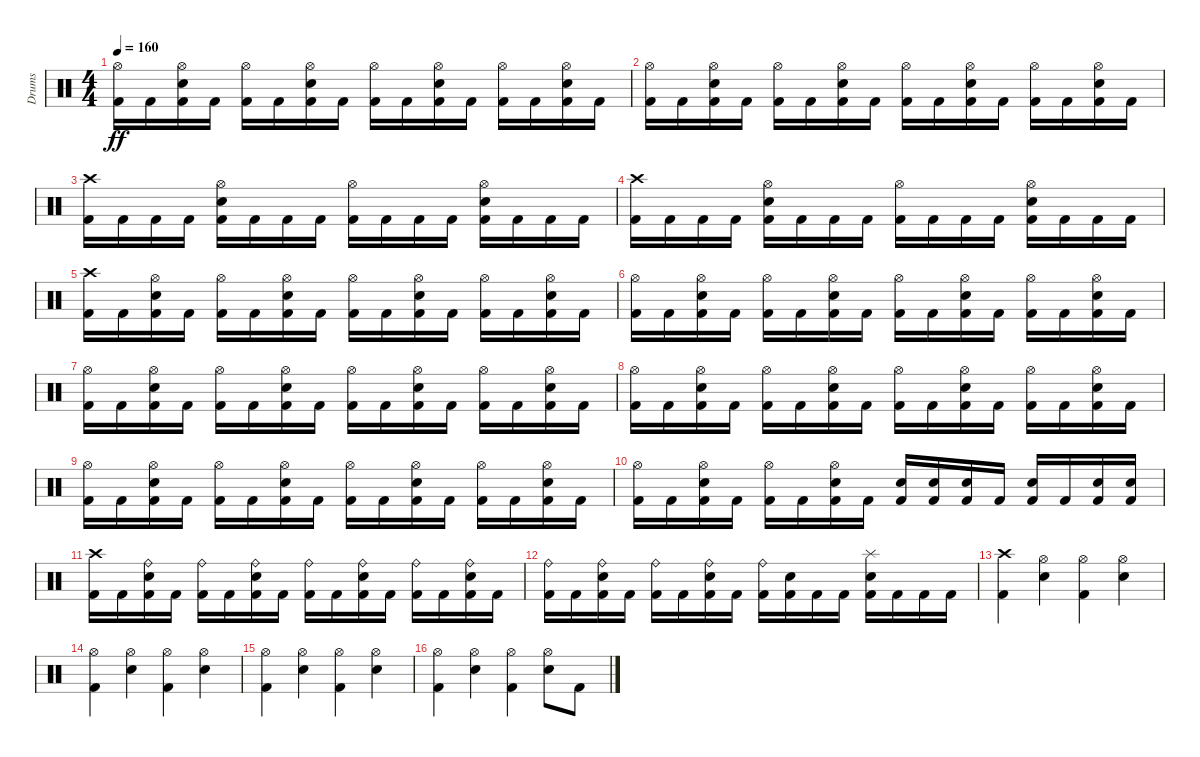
\track ("Drums" "Drums") {instrument percussion}
\staff {score}
\articulation defaults
\ts (4 4)
\tempo 160
\clef neutral
\ks c
("Hi-Hat (open)" "Kick (hit) 2").16{dy ff} "Kick (hit) 2".16 ("Hi-Hat (open)" "Electric Snare (hit)" "Kick (hit) 2").16 "Kick (hit) 2".16 ("Hi-Hat (open)" "Kick (hit) 2").16 "Kick (hit) 2".16 ("Hi-Hat (open)" "Electric Snare (hit)" "Kick (hit) 2").16 "Kick (hit) 2".16 ("Hi-Hat (open)" "Kick (hit) 2").16 "Kick (hit) 2".16 ("Hi-Hat (open)" "Electric Snare (hit)" "Kick (hit) 2").16 "Kick (hit) 2".16 ("Hi-Hat (open)" "Kick (hit) 2").16 "Kick (hit) 2".16 ("Hi-Hat (open)" "Electric Snare (hit)" "Kick (hit) 2").16 "Kick (hit) 2".16 |
("Hi-Hat (open)" "Kick (hit) 2").16 "Kick (hit) 2".16 ("Hi-Hat (open)" "Electric Snare (hit)" "Kick (hit) 2").16 "Kick (hit) 2".16 ("Hi-Hat (open)" "Kick (hit) 2").16 "Kick (hit) 2".16 ("Hi-Hat (open)" "Electric Snare (hit)" "Kick (hit) 2").16 "Kick (hit) 2".16 ("Hi-Hat (open)" "Kick (hit) 2").16 "Kick (hit) 2".16 ("Hi-Hat (open)" "Electric Snare (hit)" "Kick (hit) 2").16 "Kick (hit) 2".16 ("Hi-Hat (open)" "Kick (hit) 2").16 "Kick (hit) 2".16 ("Hi-Hat (open)" "Electric Snare (hit)" "Kick (hit) 2").16 "Kick (hit) 2".16 |
("Crash high (hit)" "Kick (hit) 2").16 "Kick (hit) 2".16 "Kick (hit) 2".16 "Kick (hit) 2".16 ("Hi-Hat (open)" "Electric Snare (hit)" "Kick (hit) 2").16 "Kick (hit) 2".16 "Kick (hit) 2".16 "Kick (hit) 2".16 ("Hi-Hat (open)" "Kick (hit) 2").16 "Kick (hit) 2".16 "Kick (hit) 2".16 "Kick (hit) 2".16 ("Hi-Hat (open)" "Electric Snare (hit)" "Kick (hit) 2").16 "Kick (hit) 2".16 "Kick (hit) 2".16 "Kick (hit) 2".16 |
("Crash high (hit)" "Kick (hit) 2").16 "Kick (hit) 2".16 "Kick (hit) 2".16 "Kick (hit) 2".16 ("Hi-Hat (open)" "Electric Snare (hit)" "Kick (hit) 2").16 "Kick (hit) 2".16 "Kick (hit) 2".16 "Kick (hit) 2".16 ("Hi-Hat (open)" "Kick (hit) 2").16 "Kick (hit) 2".16 "Kick (hit) 2".16 "Kick (hit) 2".16 ("Hi-Hat (open)" "Electric Snare (hit)" "Kick (hit) 2").16 "Kick (hit) 2".16 "Kick (hit) 2".16 "Kick (hit) 2".16 |
("Crash high (hit)" "Kick (hit) 2").16 "Kick (hit) 2".16 ("Hi-Hat (open)" "Electric Snare (hit)" "Kick (hit) 2").16 "Kick (hit) 2".16 ("Hi-Hat (open)" "Kick (hit) 2").16 "Kick (hit) 2".16 ("Hi-Hat (open)" "Electric Snare (hit)" "Kick (hit) 2").16 "Kick (hit) 2".16 ("Hi-Hat (open)" "Kick (hit) 2").16 "Kick (hit) 2".16 ("Hi-Hat (open)" "Electric Snare (hit)" "Kick (hit) 2").16 "Kick (hit) 2".16 ("Hi-Hat (open)" "Kick (hit) 2").16 "Kick (hit) 2".16 ("Hi-Hat (open)" "Electric Snare (hit)" "Kick (hit) 2").16 "Kick (hit) 2".16 |
("Hi-Hat (open)" "Kick (hit) 2").16 "Kick (hit) 2".16 ("Hi-Hat (open)" "Electric Snare (hit)" "Kick (hit) 2").16 "Kick (hit) 2".16 ("Hi-Hat (open)" "Kick (hit) 2").16 "Kick (hit) 2".16 ("Hi-Hat (open)" "Electric Snare (hit)" "Kick (hit) 2").16 "Kick (hit) 2".16 ("Hi-Hat (open)" "Kick (hit) 2").16 "Kick (hit) 2".16 ("Hi-Hat (open)" "Electric Snare (hit)" "Kick (hit) 2").16 "Kick (hit) 2".16 ("Hi-Hat (open)" "Kick (hit) 2").16 "Kick (hit) 2".16 ("Hi-Hat (open)" "Electric Snare (hit)" "Kick (hit) 2").16 "Kick (hit) 2".16 |
("Hi-Hat (open)" "Kick (hit) 2").16 "Kick (hit) 2".16 ("Hi-Hat (open)" "Electric Snare (hit)" "Kick (hit) 2").16 "Kick (hit) 2".16 ("Hi-Hat (open)" "Kick (hit) 2").16 "Kick (hit) 2".16 ("Hi-Hat (open)" "Electric Snare (hit)" "Kick (hit) 2").16 "Kick (hit) 2".16 ("Hi-Hat (open)" "Kick (hit) 2").16 "Kick (hit) 2".16 ("Hi-Hat (open)" "Electric Snare (hit)" "Kick (hit) 2").16 "Kick (hit) 2".16 ("Hi-Hat (open)" "Kick (hit) 2").16 "Kick (hit) 2".16 ("Hi-Hat (open)" "Electric Snare (hit)" "Kick (hit) 2").16 "Kick (hit) 2".16 |
("Hi-Hat (open)" "Kick (hit) 2").16 "Kick (hit) 2".16 ("Hi-Hat (open)" "Electric Snare (hit)" "Kick (hit) 2").16 "Kick (hit) 2".16 ("Hi-Hat (open)" "Kick (hit) 2").16 "Kick (hit) 2".16 ("Hi-Hat (open)" "Electric Snare (hit)" "Kick (hit) 2").16 "Kick (hit) 2".16 ("Hi-Hat (open)" "Kick (hit) 2").16 "Kick (hit) 2".16 ("Hi-Hat (open)" "Electric Snare (hit)" "Kick (hit) 2").16 "Kick (hit) 2".16 ("Hi-Hat (open)" "Kick (hit) 2").16 "Kick (hit) 2".16 ("Hi-Hat (open)" "Electric Snare (hit)" "Kick (hit) 2").16 "Kick (hit) 2".16 |
("Hi-Hat (open)" "Kick (hit) 2").16 "Kick (hit) 2".16 ("Hi-Hat (open)" "Electric Snare (hit)" "Kick (hit) 2").16 "Kick (hit) 2".16 ("Hi-Hat (open)" "Kick (hit) 2").16 "Kick (hit) 2".16 ("Hi-Hat (open)" "Electric Snare (hit)" "Kick (hit) 2").16 "Kick (hit) 2".16 ("Hi-Hat (open)" "Kick (hit) 2").16 "Kick (hit) 2".16 ("Hi-Hat (open)" "Electric Snare (hit)" "Kick (hit) 2").16 "Kick (hit) 2".16 ("Hi-Hat (open)" "Kick (hit) 2").16 "Kick (hit) 2".16 ("Hi-Hat (open)" "Electric Snare (hit)" "Kick (hit) 2").16 "Kick (hit) 2".16 |
("Hi-Hat (open)" "Kick (hit) 2").16 "Kick (hit) 2".16 ("Hi-Hat (open)" "Electric Snare (hit)" "Kick (hit) 2").16 "Kick (hit) 2".16 ("Hi-Hat (open)" "Kick (hit) 2").16 "Kick (hit) 2".16 ("Hi-Hat (open)" "Electric Snare (hit)" "Kick (hit) 2").16 "Kick (hit) 2".16 ("Electric Snare (hit)" "Kick (hit) 2").16 ("Electric Snare (hit)" "Kick (hit) 2").16 ("Electric Snare (hit)" "Kick (hit) 2").16 "Kick (hit) 2".16 ("Electric Snare (hit)" "Kick (hit) 2").16 "Kick (hit) 2".16 ("Electric Snare (hit)" "Kick (hit) 2").16 ("Electric Snare (hit)" "Kick (hit) 2").16 |
("Crash high (hit)" "Kick (hit) 2").16 "Kick (hit) 2".16 ("Ride (bell)" "Electric Snare (hit)" "Kick (hit) 2").16 "Kick (hit) 2".16 ("Ride (bell)" "Kick (hit) 2").16 "Kick (hit) 2".16 ("Ride (bell)" "Electric Snare (hit)" "Kick (hit) 2").16 "Kick (hit) 2".16 ("Ride (bell)" "Kick (hit) 2").16 "Kick (hit) 2".16 ("Ride (bell)" "Electric Snare (hit)" "Kick (hit) 2").16 "Kick (hit) 2".16 ("Ride (bell)" "Kick (hit) 2").16 "Kick (hit) 2".16 ("Ride (bell)" "Electric Snare (hit)" "Kick (hit) 2").16 "Kick (hit) 2".16 |
("Ride (bell)" "Kick (hit) 2").16 "Kick (hit) 2".16 ("Ride (bell)" "Electric Snare (hit)" "Kick (hit) 2").16 "Kick (hit) 2".16 ("Ride (bell)" "Kick (hit) 2").16 "Kick (hit) 2".16 ("Ride (bell)" "Electric Snare (hit)" "Kick (hit) 2").16 "Kick (hit) 2".16 ("Ride (bell)" "Kick (hit) 2").16 ("Electric Snare (hit)" "Kick (hit) 2").16 "Kick (hit) 2".16 "Kick (hit) 2".16 ("Splash (hit)" "Electric Snare (hit)" "Kick (hit) 2").16 "Kick (hit) 2".16 "Kick (hit) 2".16 "Kick (hit) 2".16 |
("Crash high (hit)" "Kick (hit) 2").4 ("Hi-Hat (open)" "Electric Snare (hit)").4 ("Hi-Hat (open)" "Kick (hit) 2").4 ("Hi-Hat (open)" "Electric Snare (hit)").4 |
("Hi-Hat (open)" "Kick (hit) 2").4 ("Hi-Hat (open)" "Electric Snare (hit)").4 ("Hi-Hat (open)" "Kick (hit) 2").4 ("Hi-Hat (open)" "Electric Snare (hit)").4 |
("Hi-Hat (open)" "Kick (hit) 2").4 ("Hi-Hat (open)" "Electric Snare (hit)").4 ("Hi-Hat (open)" "Kick (hit) 2").4 ("Hi-Hat (open)" "Electric Snare (hit)").4 |
("Hi-Hat (open)" "Kick (hit) 2").4 ("Hi-Hat (open)" "Electric Snare (hit)").4 ("Hi-Hat (open)" "Kick (hit) 2").4 ("Hi-Hat (open)" "Electric Snare (hit)").8 "Kick (hit) 2".8
